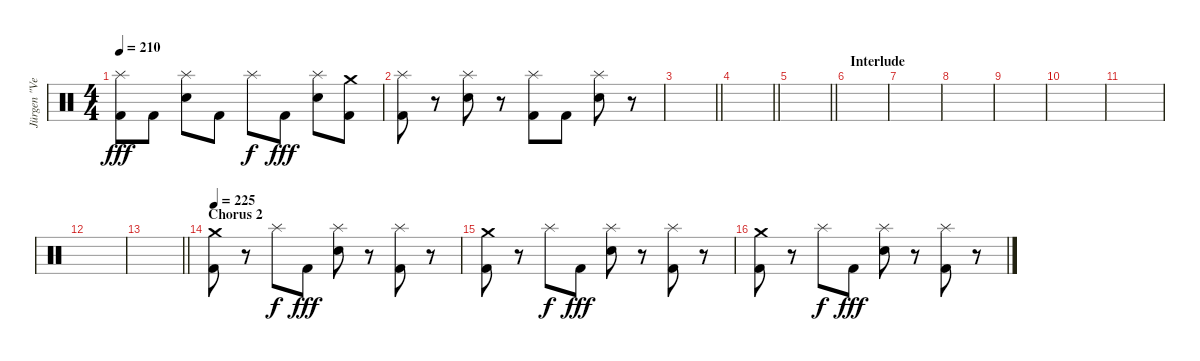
\track ("Jürgen \"Ventor\" Reil" "Jürgen \"Ve") {instrument percussion}
\staff {score}
\articulation defaults
\ts (4 4)
\tempo 210
\clef neutral
\ks c
("Splash (hit)" "Kick (hit) 2").8{dy fff} "Kick (hit) 2".8 ("Splash (hit)" "Electric Snare (hit)").8 "Kick (hit) 2".8 "Splash (hit)".8{dy f} "Kick (hit) 2".8{dy fff} ("Splash (hit)" "Electric Snare (hit)").8 ("Crash medium (hit)" "Kick (hit) 2").8 |
("Splash (hit)" "Kick (hit) 2").8 r.8 ("Splash (hit)" "Electric Snare (hit)").8 r.8 ("Splash (hit)" "Kick (hit) 2").8 "Kick (hit) 2".8 ("Splash (hit)" "Electric Snare (hit)").8 r.8 |
\barLineRight lightlight
|
\barLineRight lightlight
|
\barLineRight lightlight
|
\section ("" "Interlude")
|
|
|
|
|
|
|
\barLineRight lightlight
|
\section ("" "Chorus 2")
\tempo 225
("Crash medium (hit)" "Kick (hit) 2").8 r.8 "Splash (hit)".8{dy f} "Kick (hit) 2".8{dy fff} ("Splash (hit)" "Electric Snare (hit)").8 r.8 ("Splash (hit)" "Kick (hit) 2").8 r.8 |
("Crash medium (hit)" "Kick (hit) 2").8 r.8 "Splash (hit)".8{dy f} "Kick (hit) 2".8{dy fff} ("Splash (hit)" "Electric Snare (hit)").8 r.8 ("Splash (hit)" "Kick (hit) 2").8 r.8 |
("Crash medium (hit)" "Kick (hit) 2").8 r.8 "Splash (hit)".8{dy f} "Kick (hit) 2".8{dy fff} ("Splash (hit)" "Electric Snare (hit)").8 r.8 ("Splash (hit)" "Kick (hit) 2").8 r.8
